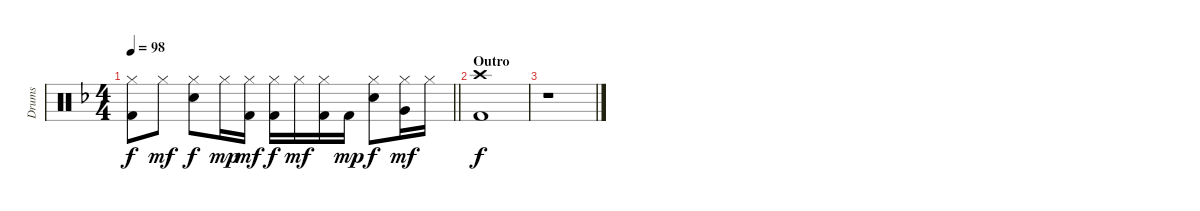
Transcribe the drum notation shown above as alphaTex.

\track ("Drums" "Drums") {instrument percussion}
\staff {score}
\articulation defaults
\ts (4 4)
\tempo 98
\clef neutral
\barLineRight lightlight
\ks f
("Hi-Hat (closed)" "Kick (hit) 2").8{dy f} "Hi-Hat (closed)".8{dy mf} ("Hi-Hat (closed)" "Electric Snare (hit)").8{dy f} "Hi-Hat (closed)".16{dy mp} ("Hi-Hat (closed)" "Kick (hit) 2").16{dy mf} ("Hi-Hat (closed)" "Kick (hit) 2").16{dy f} "Hi-Hat (closed)".16{dy mf} ("Hi-Hat (closed)" "Kick (hit) 2").16 "Kick (hit) 2".16{dy mp} ("Hi-Hat (closed)" "Electric Snare (hit)").8{dy f} ("Hi-Hat (closed)" "Very Low Tom (hit)").16{dy mf} "Hi-Hat (closed)".16 |
\section ("" "Outro")
("Crash high (hit)" "Kick (hit) 2").1{dy f} |
r.1
